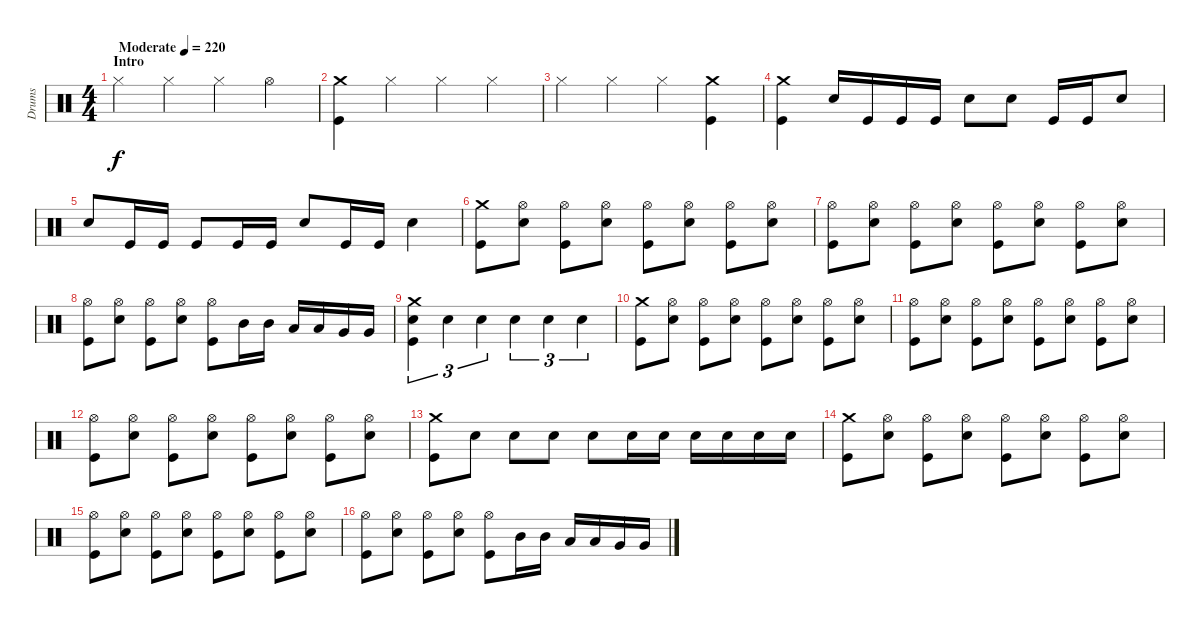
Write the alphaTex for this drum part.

\track ("Drums" "Drums") {instrument percussion}
\staff {score}
\articulation defaults
\ts (4 4)
\section ("" "Intro")
\tempo (220 "Moderate")
\clef neutral
\ks c "Hi-Hat (closed)".4{dy f} "Hi-Hat (closed)".4 "Hi-Hat (closed)".4 "Hi-Hat (open)".4
|
("Crash medium (hit)" "Kick (hit)").4 "Hi-Hat (closed)".4 "Hi-Hat (closed)".4 "Hi-Hat (closed)".4 |
"Hi-Hat (closed)".4 "Hi-Hat (closed)".4 "Hi-Hat (closed)".4 ("Crash medium (hit)" "Kick (hit)").4 |
("Crash medium (hit)" "Kick (hit)").4 "Snare (hit) 2".16 "Kick (hit)".16 "Kick (hit)".16 "Kick (hit)".16 "Snare (hit) 2".8 "Snare (hit) 2".8 "Kick (hit)".16 "Kick (hit)".16 "Snare (hit) 2".8 |
"Snare (hit) 2".8 "Kick (hit)".16 "Kick (hit)".16 "Kick (hit)".8 "Kick (hit)".16 "Kick (hit)".16 "Snare (hit) 2".8 "Kick (hit)".16 "Kick (hit)".16 "Snare (hit) 2".4 |
("Crash medium (hit)" "Kick (hit)").8 ("Hi-Hat (open)" "Snare (hit) 2").8 ("Hi-Hat (open)" "Kick (hit)").8 ("Hi-Hat (open)" "Snare (hit) 2").8 ("Hi-Hat (open)" "Kick (hit)").8 ("Hi-Hat (open)" "Snare (hit) 2").8 ("Hi-Hat (open)" "Kick (hit)").8 ("Hi-Hat (open)" "Snare (hit) 2").8 |
("Hi-Hat (open)" "Kick (hit)").8 ("Hi-Hat (open)" "Snare (hit) 2").8 ("Hi-Hat (open)" "Kick (hit)").8 ("Hi-Hat (open)" "Snare (hit) 2").8 ("Hi-Hat (open)" "Kick (hit)").8 ("Hi-Hat (open)" "Snare (hit) 2").8 ("Hi-Hat (open)" "Kick (hit)").8 ("Hi-Hat (open)" "Snare (hit) 2").8 |
("Hi-Hat (open)" "Kick (hit)").8 ("Hi-Hat (open)" "Snare (hit) 2").8 ("Hi-Hat (open)" "Kick (hit)").8 ("Hi-Hat (open)" "Snare (hit) 2").8 ("Hi-Hat (open)" "Kick (hit)").8 "Mid Tom (hit)".16 "Mid Tom (hit)".16 "Low Tom (hit)".16 "Low Tom (hit)".16 "Very Low Tom (hit)".16 "Very Low Tom (hit)".16 |
("Crash medium (hit)" "Snare (hit) 2" "Kick (hit)").4{tu (3 2)} "Snare (hit) 2".4{tu (3 2)} "Snare (hit) 2".4{tu (3 2)} "Snare (hit) 2".4{tu (3 2)} "Snare (hit) 2".4{tu (3 2)} "Snare (hit) 2".4{tu (3 2)} |
("Crash medium (hit)" "Kick (hit)").8 ("Hi-Hat (open)" "Snare (hit) 2").8 ("Hi-Hat (open)" "Kick (hit)").8 ("Hi-Hat (open)" "Snare (hit) 2").8 ("Hi-Hat (open)" "Kick (hit)").8 ("Hi-Hat (open)" "Snare (hit) 2").8 ("Hi-Hat (open)" "Kick (hit)").8 ("Hi-Hat (open)" "Snare (hit) 2").8 |
("Hi-Hat (open)" "Kick (hit)").8 ("Hi-Hat (open)" "Snare (hit) 2").8 ("Hi-Hat (open)" "Kick (hit)").8 ("Hi-Hat (open)" "Snare (hit) 2").8 ("Hi-Hat (open)" "Kick (hit)").8 ("Hi-Hat (open)" "Snare (hit) 2").8 ("Hi-Hat (open)" "Kick (hit)").8 ("Hi-Hat (open)" "Snare (hit) 2").8 |
("Hi-Hat (open)" "Kick (hit)").8 ("Hi-Hat (open)" "Snare (hit) 2").8 ("Hi-Hat (open)" "Kick (hit)").8 ("Hi-Hat (open)" "Snare (hit) 2").8 ("Hi-Hat (open)" "Kick (hit)").8 ("Hi-Hat (open)" "Snare (hit) 2").8 ("Hi-Hat (open)" "Kick (hit)").8 ("Hi-Hat (open)" "Snare (hit) 2").8 |
("Crash medium (hit)" "Kick (hit)").8 "Snare (hit) 2".8 "Snare (hit) 2".8 "Snare (hit) 2".8 "Snare (hit) 2".8 "Snare (hit) 2".16 "Snare (hit) 2".16 "Snare (hit) 2".16 "Snare (hit) 2".16 "Snare (hit) 2".16 "Snare (hit) 2".16 |
("Crash medium (hit)" "Kick (hit)").8 ("Hi-Hat (open)" "Snare (hit) 2").8 ("Hi-Hat (open)" "Kick (hit)").8 ("Hi-Hat (open)" "Snare (hit) 2").8 ("Hi-Hat (open)" "Kick (hit)").8 ("Hi-Hat (open)" "Snare (hit) 2").8 ("Hi-Hat (open)" "Kick (hit)").8 ("Hi-Hat (open)" "Snare (hit) 2").8 |
("Hi-Hat (open)" "Kick (hit)").8 ("Hi-Hat (open)" "Snare (hit) 2").8 ("Hi-Hat (open)" "Kick (hit)").8 ("Hi-Hat (open)" "Snare (hit) 2").8 ("Hi-Hat (open)" "Kick (hit)").8 ("Hi-Hat (open)" "Snare (hit) 2").8 ("Hi-Hat (open)" "Kick (hit)").8 ("Hi-Hat (open)" "Snare (hit) 2").8 |
("Hi-Hat (open)" "Kick (hit)").8 ("Hi-Hat (open)" "Snare (hit) 2").8 ("Hi-Hat (open)" "Kick (hit)").8 ("Hi-Hat (open)" "Snare (hit) 2").8 ("Hi-Hat (open)" "Kick (hit)").8 "Mid Tom (hit)".16 "Mid Tom (hit)".16 "Low Tom (hit)".16 "Low Tom (hit)".16 "Very Low Tom (hit)".16 "Very Low Tom (hit)".16
